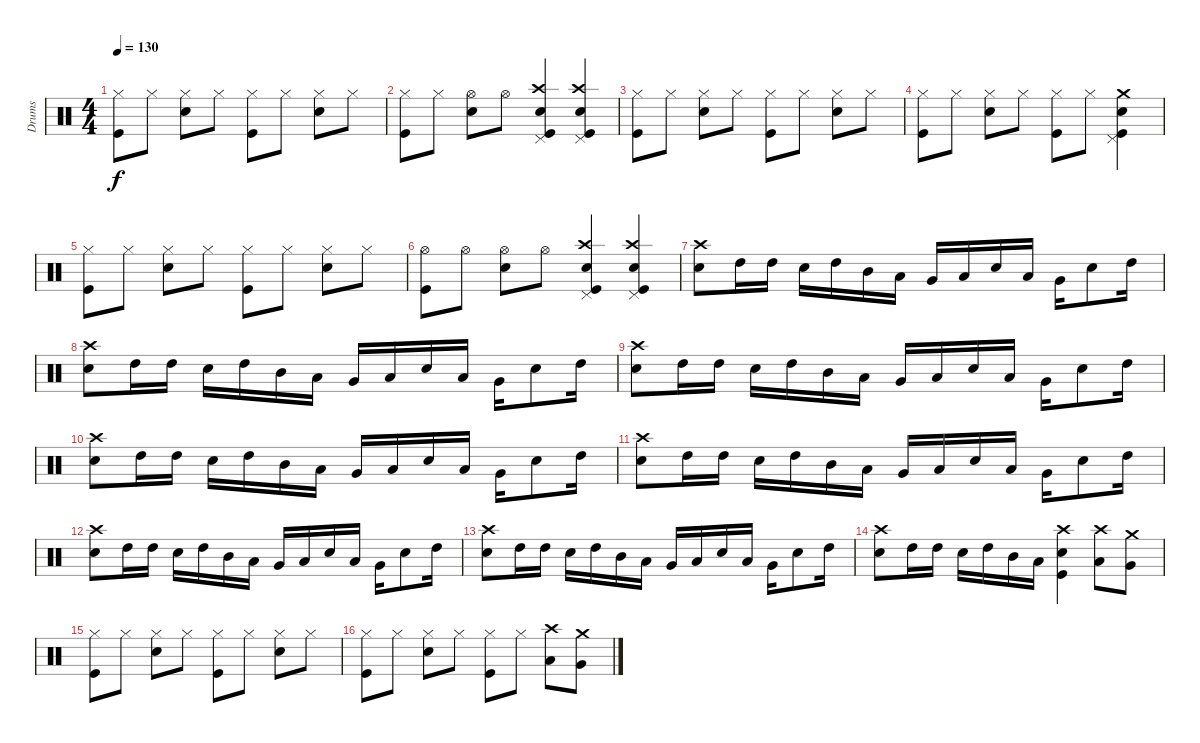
\track ("Drums" "Drums") {instrument percussion}
\staff {score}
\articulation defaults
\ts (4 4)
\tempo 130
\clef neutral
\ks c
("Hi-Hat (closed)" "Kick (hit)").8{dy f} "Hi-Hat (closed)".8 ("Hi-Hat (closed)" "Electric Snare (hit)").8 "Hi-Hat (closed)".8 ("Hi-Hat (closed)" "Kick (hit)").8 "Hi-Hat (closed)".8 ("Hi-Hat (closed)" "Electric Snare (hit)").8 "Hi-Hat (closed)".8 |
("Hi-Hat (closed)" "Kick (hit)").8 "Hi-Hat (closed)".8 ("Hi-Hat (open)" "Electric Snare (hit)").8 "Hi-Hat (open)".8 ("Crash high (hit)" "Pedal Hi-Hat (hit)" "Electric Snare (hit)" "Kick (hit)").4 ("Crash high (hit)" "Pedal Hi-Hat (hit)" "Electric Snare (hit)" "Kick (hit)").4 |
("Hi-Hat (closed)" "Kick (hit)").8 "Hi-Hat (closed)".8 ("Hi-Hat (closed)" "Electric Snare (hit)").8 "Hi-Hat (closed)".8 ("Hi-Hat (closed)" "Kick (hit)").8 "Hi-Hat (closed)".8 ("Hi-Hat (closed)" "Electric Snare (hit)").8 "Hi-Hat (closed)".8 |
("Hi-Hat (closed)" "Kick (hit)").8 "Hi-Hat (closed)".8 ("Hi-Hat (closed)" "Electric Snare (hit)").8 "Hi-Hat (closed)".8 ("Hi-Hat (closed)" "Kick (hit)").8 "Hi-Hat (closed)".8 ("Crash medium (hit)" "Pedal Hi-Hat (hit)" "Electric Snare (hit)" "Kick (hit)").4 |
("Hi-Hat (closed)" "Kick (hit)").8 "Hi-Hat (closed)".8 ("Hi-Hat (closed)" "Electric Snare (hit)").8 "Hi-Hat (closed)".8 ("Hi-Hat (closed)" "Kick (hit)").8 "Hi-Hat (closed)".8 ("Hi-Hat (closed)" "Electric Snare (hit)").8 "Hi-Hat (closed)".8 |
("Hi-Hat (open)" "Kick (hit)").8{volume 16} "Hi-Hat (open)".8 ("Hi-Hat (open)" "Electric Snare (hit)").8 "Hi-Hat (open)".8 ("Crash high (hit)" "Pedal Hi-Hat (hit)" "Electric Snare (hit)" "Kick (hit)").4 ("Crash high (hit)" "Pedal Hi-Hat (hit)" "Electric Snare (hit)" "Kick (hit)").4 |
("Crash high (hit)" "Electric Snare (hit)").8 "High Tom (hit)".16 "High Tom (hit)".16 "Electric Snare (hit)".16 "High Tom (hit)".16 "Mid Tom (hit)".16 "Low Tom (hit)".16 "Very Low Tom (hit)".16 "Low Floor Tom (hit)".16 "Electric Snare (hit)".16 "Low Floor Tom (hit)".16 "Very Low Tom (hit)".16 "Electric Snare (hit)".8 "High Tom (hit)".16 |
("Crash high (hit)" "Electric Snare (hit)").8 "High Tom (hit)".16 "High Tom (hit)".16 "Electric Snare (hit)".16 "High Tom (hit)".16 "Mid Tom (hit)".16 "Low Tom (hit)".16 "Very Low Tom (hit)".16 "Low Floor Tom (hit)".16 "Electric Snare (hit)".16 "Low Floor Tom (hit)".16 "Very Low Tom (hit)".16 "Electric Snare (hit)".8 "High Tom (hit)".16 |
("Crash high (hit)" "Electric Snare (hit)").8 "High Tom (hit)".16 "High Tom (hit)".16 "Electric Snare (hit)".16 "High Tom (hit)".16 "Mid Tom (hit)".16 "Low Tom (hit)".16 "Very Low Tom (hit)".16 "Low Floor Tom (hit)".16 "Electric Snare (hit)".16 "Low Floor Tom (hit)".16 "Very Low Tom (hit)".16 "Electric Snare (hit)".8 "High Tom (hit)".16 |
("Crash high (hit)" "Electric Snare (hit)").8 "High Tom (hit)".16 "High Tom (hit)".16 "Electric Snare (hit)".16 "High Tom (hit)".16 "Mid Tom (hit)".16 "Low Tom (hit)".16 "Very Low Tom (hit)".16 "Low Floor Tom (hit)".16 "Electric Snare (hit)".16 "Low Floor Tom (hit)".16 "Very Low Tom (hit)".16 "Electric Snare (hit)".8 "High Tom (hit)".16 |
("Crash high (hit)" "Electric Snare (hit)").8 "High Tom (hit)".16 "High Tom (hit)".16 "Electric Snare (hit)".16 "High Tom (hit)".16 "Mid Tom (hit)".16 "Low Tom (hit)".16 "Very Low Tom (hit)".16 "Low Floor Tom (hit)".16 "Electric Snare (hit)".16 "Low Floor Tom (hit)".16 "Very Low Tom (hit)".16 "Electric Snare (hit)".8 "High Tom (hit)".16 |
("Crash high (hit)" "Electric Snare (hit)").8 "High Tom (hit)".16 "High Tom (hit)".16 "Electric Snare (hit)".16 "High Tom (hit)".16 "Mid Tom (hit)".16 "Low Tom (hit)".16 "Very Low Tom (hit)".16 "Low Floor Tom (hit)".16 "Electric Snare (hit)".16 "Low Floor Tom (hit)".16 "Very Low Tom (hit)".16 "Electric Snare (hit)".8 "High Tom (hit)".16 |
("Crash high (hit)" "Electric Snare (hit)").8 "High Tom (hit)".16 "High Tom (hit)".16 "Electric Snare (hit)".16 "High Tom (hit)".16 "Mid Tom (hit)".16 "Low Tom (hit)".16 "Very Low Tom (hit)".16 "Low Floor Tom (hit)".16 "Electric Snare (hit)".16 "Low Floor Tom (hit)".16 "Very Low Tom (hit)".16 "Electric Snare (hit)".8 "High Tom (hit)".16 |
("Crash high (hit)" "Electric Snare (hit)").8 "High Tom (hit)".16 "High Tom (hit)".16 "Electric Snare (hit)".16 "High Tom (hit)".16 "Mid Tom (hit)".16 "Low Tom (hit)".16 ("Crash high (hit)" "Electric Snare (hit)" "Kick (hit)").4 ("Crash high (hit)" "Low Floor Tom (hit)").8{volume 13} ("Crash medium (hit)" "Very Low Tom (hit)").8 |
("Hi-Hat (closed)" "Kick (hit)").8 "Hi-Hat (closed)".8 ("Hi-Hat (closed)" "Electric Snare (hit)").8 "Hi-Hat (closed)".8 ("Hi-Hat (closed)" "Kick (hit)").8 "Hi-Hat (closed)".8 ("Hi-Hat (closed)" "Electric Snare (hit)").8 "Hi-Hat (closed)".8 |
("Hi-Hat (closed)" "Kick (hit)").8 "Hi-Hat (closed)".8 ("Hi-Hat (closed)" "Electric Snare (hit)").8 "Hi-Hat (closed)".8 ("Hi-Hat (closed)" "Kick (hit)").8 "Hi-Hat (closed)".8 ("Crash high (hit)" "Low Floor Tom (hit)").8 ("Crash medium (hit)" "Very Low Tom (hit)").8
